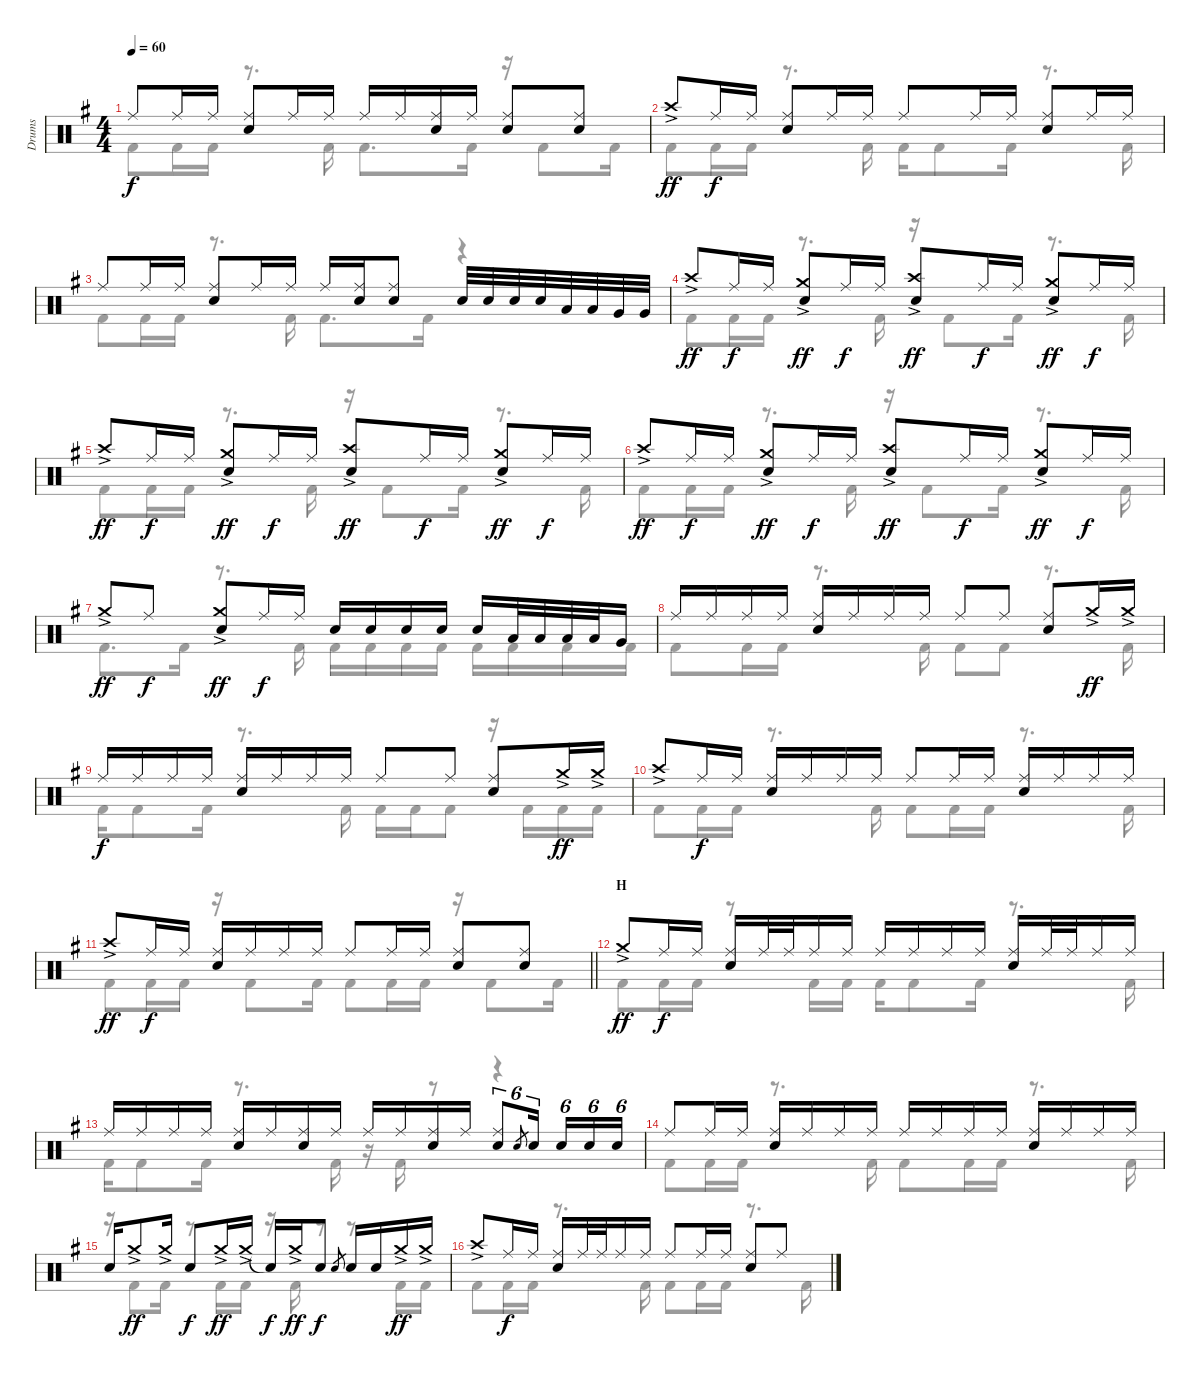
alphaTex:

\track ("Drums" "Drums") {instrument percussion}
\staff {score}
\articulation defaults
\voice
\ts (4 4)
\tempo 60
\clef neutral
\ks g "Ride (middle)".8{dy f} "Ride (middle)".16 "Ride (middle)".16
("Ride (middle)" "Snare (hit) 2").8 "Ride (middle)".16 "Ride (middle)".16 "Ride (middle)".16 "Ride (middle)".16 ("Ride (middle)" "Snare (hit) 2").16 "Ride (middle)".16 ("Ride (middle)" "Snare (hit) 2").8 ("Ride (middle)" "Snare (hit) 2").8 |
"Crash high (hit)"{ac}.8{dy ff} "Ride (middle)".16{dy f} "Ride (middle)".16 ("Ride (middle)" "Snare (hit) 2").8 "Ride (middle)".16 "Ride (middle)".16 "Ride (middle)".8 "Ride (middle)".16 "Ride (middle)".16 ("Ride (middle)" "Snare (hit) 2").8 "Ride (middle)".16 "Ride (middle)".16 |
"Ride (middle)".8 "Ride (middle)".16 "Ride (middle)".16 ("Ride (middle)" "Snare (hit) 2").8 "Ride (middle)".16 "Ride (middle)".16 "Ride (middle)".16 ("Ride (middle)" "Snare (hit) 2").16 ("Ride (middle)" "Snare (hit) 2").8 "Snare (hit) 2".32 "Snare (hit) 2".32 "Snare (hit) 2".32 "Snare (hit) 2".32 "Low Tom (hit)".32 "Low Tom (hit)".32 "Very Low Tom (hit)".32 "Very Low Tom (hit)".32 |
"Crash high (hit)"{ac}.8{dy ff} "Ride (middle)".16{dy f} "Ride (middle)".16 ("Crash medium (hit)"{ac} "Snare (hit) 2").8{dy ff} "Ride (middle)".16{dy f} "Ride (middle)".16 ("Crash high (hit)"{ac} "Snare (hit) 2").8{dy ff} "Ride (middle)".16{dy f} "Ride (middle)".16 ("Crash medium (hit)"{ac} "Snare (hit) 2").8{dy ff} "Ride (middle)".16{dy f} "Ride (middle)".16 |
"Crash high (hit)"{ac}.8{dy ff} "Ride (middle)".16{dy f} "Ride (middle)".16 ("Crash medium (hit)"{ac} "Snare (hit) 2").8{dy ff} "Ride (middle)".16{dy f} "Ride (middle)".16 ("Crash high (hit)"{ac} "Snare (hit) 2").8{dy ff} "Ride (middle)".16{dy f} "Ride (middle)".16 ("Crash medium (hit)"{ac} "Snare (hit) 2").8{dy ff} "Ride (middle)".16{dy f} "Ride (middle)".16 |
"Crash high (hit)"{ac}.8{dy ff} "Ride (middle)".16{dy f} "Ride (middle)".16 ("Crash medium (hit)"{ac} "Snare (hit) 2").8{dy ff} "Ride (middle)".16{dy f} "Ride (middle)".16 ("Crash high (hit)"{ac} "Snare (hit) 2").8{dy ff} "Ride (middle)".16{dy f} "Ride (middle)".16 ("Crash medium (hit)"{ac} "Snare (hit) 2").8{dy ff} "Ride (middle)".16{dy f} "Ride (middle)".16 |
"Crash medium (hit)"{ac}.8{dy ff} "Ride (middle)".8{dy f} ("Crash medium (hit)"{ac} "Snare (hit) 2").8{dy ff} "Ride (middle)".16{dy f} "Ride (middle)".16 "Snare (hit) 2".16 "Snare (hit) 2".16 "Snare (hit) 2".16 "Snare (hit) 2".16 "Snare (hit) 2".16 "Low Tom (hit)".32 "Low Tom (hit)".32 "Low Tom (hit)".32 "Low Tom (hit)".32 "Very Low Tom (hit)".16 |
"Ride (middle)".16 "Ride (middle)".16 "Ride (middle)".16 "Ride (middle)".16 ("Ride (middle)" "Snare (hit) 2").16 "Ride (middle)".16 "Ride (middle)".16 "Ride (middle)".16 "Ride (middle)".8 "Ride (middle)".8 ("Ride (middle)" "Snare (hit) 2").8 "Crash medium (hit)"{ac}.16{dy ff} "Crash medium (hit)"{ac}.16 |
"Ride (middle)".16{dy f} "Ride (middle)".16 "Ride (middle)".16 "Ride (middle)".16 ("Ride (middle)" "Snare (hit) 2").16 "Ride (middle)".16 "Ride (middle)".16 "Ride (middle)".16 "Ride (middle)".8 "Ride (middle)".8 ("Ride (middle)" "Snare (hit) 2").8 "Crash medium (hit)"{ac}.16{dy ff} "Crash medium (hit)"{ac}.16 |
"Crash high (hit)"{ac}.8 "Ride (middle)".16{dy f} "Ride (middle)".16 ("Ride (middle)" "Snare (hit) 2").16 "Ride (middle)".16 "Ride (middle)".16 "Ride (middle)".16 "Ride (middle)".8 "Ride (middle)".16 "Ride (middle)".16 ("Ride (middle)" "Snare (hit) 2").16 "Ride (middle)".16 "Ride (middle)".16 "Ride (middle)".16 |
\barLineRight lightlight "Crash high (hit)"{ac}.8{dy ff} "Ride (middle)".16{dy f} "Ride (middle)".16
("Ride (middle)" "Snare (hit) 2").16 "Ride (middle)".16 "Ride (middle)".16 "Ride (middle)".16 "Ride (middle)".8 "Ride (middle)".16 "Ride (middle)".16 ("Ride (middle)" "Snare (hit) 2").8 ("Ride (middle)" "Snare (hit) 2").8 |
\section ("" "H")
"Crash medium (hit)"{ac}.8{dy ff} "Ride (middle)".16{dy f} "Ride (middle)".16 ("Ride (middle)" "Snare (hit) 2").16 "Ride (middle)".32 "Ride (middle)".32 "Ride (middle)".16 "Ride (middle)".16 "Ride (middle)".16 "Ride (middle)".16 "Ride (middle)".16 "Ride (middle)".16 ("Ride (middle)" "Snare (hit) 2").16 "Ride (middle)".32 "Ride (middle)".32 "Ride (middle)".16 "Ride (middle)".16 |
"Ride (middle)".16 "Ride (middle)".16 "Ride (middle)".16 "Ride (middle)".16 ("Ride (middle)" "Snare (hit) 2").16 "Ride (middle)".16 ("Ride (middle)" "Snare (hit) 2").16 "Ride (middle)".16 "Ride (middle)".16 "Ride (middle)".16 ("Ride (middle)" "Snare (hit) 2").16 "Ride (middle)".16 ("Ride (middle)" "Snare (hit) 2").8{tu (6 4)} "Snare (hit) 2".8{gr} "Snare (hit) 2".16{tu (6 4) beam splitsecondary} "Snare (hit) 2".16{tu (6 4)} "Snare (hit) 2".16{tu (6 4)} "Snare (hit) 2".16{tu (6 4)} |
"Ride (middle)".8 "Ride (middle)".16 "Ride (middle)".16 ("Ride (middle)" "Snare (hit) 2").16 "Ride (middle)".16 "Ride (middle)".16 "Ride (middle)".16 "Ride (middle)".16 "Ride (middle)".16 "Ride (middle)".16 "Ride (middle)".16 ("Ride (middle)" "Snare (hit) 2").16 "Ride (middle)".16 "Ride (middle)".16 "Ride (middle)".16 |
"Snare (hit) 2".16 "Crash medium (hit)"{ac}.8{dy ff} "Crash medium (hit)"{ac}.16 "Snare (hit) 2".8{dy f} "Crash medium (hit)"{ac}.16{dy ff} "Crash medium (hit)"{ac}.16 "Snare (hit)"{t}.16{dy f} "Crash medium (hit)"{ac}.16{dy ff} "Snare (hit) 2".8{dy f} "Snare (hit) 2".8{gr} "Snare (hit) 2".16 "Snare (hit) 2".16 "Crash medium (hit)"{ac}.16{dy ff} "Crash medium (hit)"{ac}.16 |
"Crash high (hit)"{ac}.8 "Ride (middle)".16{dy f} "Ride (middle)".16 ("Ride (middle)" "Snare (hit) 2").16 "Ride (middle)".32 "Ride (middle)".32 "Ride (middle)".16 "Ride (middle)".16 "Ride (middle)".8 "Ride (middle)".16 "Ride (middle)".16 ("Ride (middle)" "Snare (hit) 2").8 "Ride (middle)".8
\voice
\clef neutral
\ottava regular
\simile none
\ks g "Kick (hit) 2".8{dy f} "Kick (hit) 2".16 "Kick (hit) 2".16
r.8{d} "Kick (hit) 2".16 "Kick (hit) 2".8{d} "Kick (hit) 2".16 r.16 "Kick (hit) 2".8 "Kick (hit) 2".16 |
"Kick (hit) 2".8 "Kick (hit) 2".16 "Kick (hit) 2".16 r.8{d} "Kick (hit) 2".16 "Kick (hit) 2".16 "Kick (hit) 2".8 "Kick (hit) 2".16 r.8{d} "Kick (hit) 2".16 |
"Kick (hit) 2".8 "Kick (hit) 2".16 "Kick (hit) 2".16 r.8{d} "Kick (hit) 2".16 "Kick (hit) 2".8{d} "Kick (hit) 2".16 r.4 |
"Kick (hit) 2".8 "Kick (hit) 2".16 "Kick (hit) 2".16 r.8{d} "Kick (hit) 2".16 r.16 "Kick (hit) 2".8 "Kick (hit) 2".16 r.8{d} "Kick (hit) 2".16 |
"Kick (hit) 2".8 "Kick (hit) 2".16 "Kick (hit) 2".16 r.8{d} "Kick (hit) 2".16 r.16 "Kick (hit) 2".8 "Kick (hit) 2".16 r.8{d} "Kick (hit) 2".16 |
"Kick (hit) 2".8 "Kick (hit) 2".16 "Kick (hit) 2".16 r.8{d} "Kick (hit) 2".16 r.16 "Kick (hit) 2".8 "Kick (hit) 2".16 r.8{d} "Kick (hit) 2".16 |
"Kick (hit) 2".8{d} "Kick (hit) 2".16 r.8{d} "Kick (hit) 2".16 "Kick (hit) 2".16 "Kick (hit) 2".16 "Kick (hit) 2".16 "Kick (hit) 2".16 "Kick (hit) 2".16 "Kick (hit) 2".16 "Kick (hit) 2".16 "Kick (hit) 2".16 |
"Kick (hit) 2".8 "Kick (hit) 2".16 "Kick (hit) 2".16 r.8{d} "Kick (hit) 2".16 "Kick (hit) 2".8 "Kick (hit) 2".8 r.8{d} "Kick (hit) 2".16 |
"Kick (hit) 2".16 "Kick (hit) 2".8 "Kick (hit) 2".16 r.8{d} "Kick (hit) 2".16 "Kick (hit) 2".16 "Kick (hit) 2".16 "Kick (hit) 2".8 r.16 "Kick (hit) 2".16 "Kick (hit) 2".16 "Kick (hit) 2".16 |
"Kick (hit) 2".8 "Kick (hit) 2".16 "Kick (hit) 2".16 r.8{d} "Kick (hit) 2".16 "Kick (hit) 2".8 "Kick (hit) 2".16 "Kick (hit) 2".16 r.8{d} "Kick (hit) 2".16 |
\barLineRight lightlight "Kick (hit) 2".8 "Kick (hit) 2".16 "Kick (hit) 2".16
r.16 "Kick (hit) 2".8 "Kick (hit) 2".16 "Kick (hit) 2".8 "Kick (hit) 2".16 "Kick (hit) 2".16 r.16 "Kick (hit) 2".8 "Kick (hit) 2".16 |
"Kick (hit) 2".8 "Kick (hit) 2".16 "Kick (hit) 2".16 r.8 "Kick (hit) 2".16 "Kick (hit) 2".16 "Kick (hit) 2".16 "Kick (hit) 2".8 "Kick (hit) 2".16 r.8{d} "Kick (hit) 2".16 |
"Kick (hit) 2".16 "Kick (hit) 2".8 "Kick (hit) 2".16 r.8{d} "Kick (hit) 2".16 r.16 "Kick (hit) 2".16 r.8 r.4 |
"Kick (hit) 2".8 "Kick (hit) 2".16 "Kick (hit) 2".16 r.8{d} "Kick (hit) 2".16 "Kick (hit) 2".8 "Kick (hit) 2".16 "Kick (hit) 2".16 r.8{d} "Kick (hit) 2".16 |
r.16 "Kick (hit) 2".8 "Kick (hit) 2".16 r.8 "Kick (hit) 2".16 "Kick (hit) 2".16 r.16 "Kick (hit) 2".16 r.8 r.8 "Kick (hit) 2".16 "Kick (hit) 2".16 |
"Kick (hit) 2".8 "Kick (hit) 2".16 "Kick (hit) 2".16 r.8{d} "Kick (hit) 2".16 "Kick (hit) 2".8 "Kick (hit) 2".16 "Kick (hit) 2".16 r.8{d} "Kick (hit) 2".16
